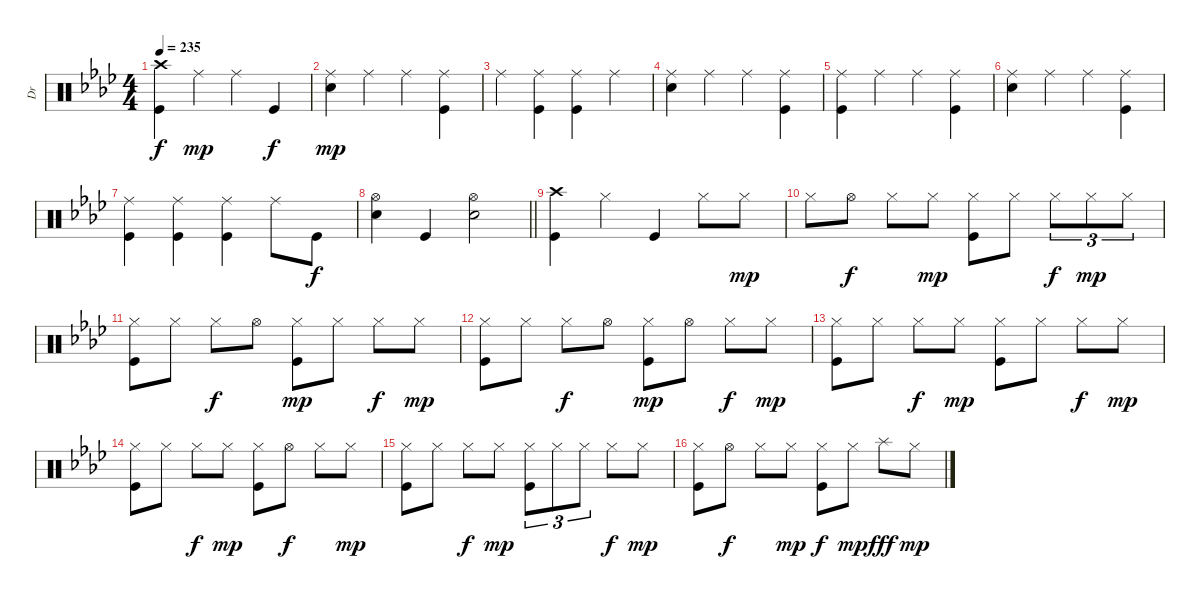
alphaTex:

\track ("Dr" "Dr") {instrument percussion}
\staff {score}
\articulation defaults
\ts (4 4)
\tempo 235
\clef neutral
\ks ab
("Crash high (hit)" "Kick (hit)").4{dy f} "Ride (middle)".4{dy mp} "Ride (middle)".4 "Kick (hit)".4{dy f} |
("Ride (middle)" "Electric Snare (hit)").4{dy mp} "Ride (middle)".4 "Ride (middle)".4 ("Ride (middle)" "Kick (hit)").4 |
"Ride (middle)".4 ("Ride (middle)" "Kick (hit)").4 ("Ride (middle)" "Kick (hit)").4 "Ride (middle)".4 |
("Ride (middle)" "Electric Snare (hit)").4 "Ride (middle)".4 "Ride (middle)".4 ("Ride (middle)" "Kick (hit)").4 |
("Ride (middle)" "Kick (hit)").4 "Ride (middle)".4 "Ride (middle)".4 ("Ride (middle)" "Kick (hit)").4 |
("Ride (middle)" "Electric Snare (hit)").4 "Ride (middle)".4 "Ride (middle)".4 ("Ride (middle)" "Kick (hit)").4 |
("Ride (middle)" "Kick (hit)").4 ("Ride (middle)" "Kick (hit)").4 ("Ride (middle)" "Kick (hit)").4 "Ride (middle)".8 "Kick (hit)".8{dy f} |
\barLineRight lightlight
("Hi-Hat (open)" "Electric Snare (hit)").4 "Kick (hit)".4 ("Hi-Hat (open)" "Electric Snare (hit)").2 |
\section ("" "")
("Crash high (hit)" "Kick (hit)").4 "Hi-Hat (closed)".4 "Kick (hit)".4 "Hi-Hat (closed)".8 "Hi-Hat (closed)".8{dy mp} |
"Hi-Hat (closed)".8 "Hi-Hat (open)".8{dy f} "Hi-Hat (closed)".8 "Hi-Hat (closed)".8{dy mp} ("Hi-Hat (closed)" "Kick (hit)").8 "Hi-Hat (closed)".8 "Hi-Hat (closed)".8{tu (3 2) dy f} "Hi-Hat (closed)".8{tu (3 2) dy mp} "Hi-Hat (closed)".8{tu (3 2)} |
("Hi-Hat (closed)" "Kick (hit)").8 "Hi-Hat (closed)".8 "Hi-Hat (closed)".8{dy f} "Hi-Hat (open)".8 ("Hi-Hat (closed)" "Kick (hit)").8{dy mp} "Hi-Hat (closed)".8 "Hi-Hat (closed)".8{dy f} "Hi-Hat (closed)".8{dy mp} |
("Hi-Hat (closed)" "Kick (hit)").8 "Hi-Hat (closed)".8 "Hi-Hat (closed)".8{dy f} "Hi-Hat (open)".8 ("Hi-Hat (closed)" "Kick (hit)").8{dy mp} "Hi-Hat (open)".8 "Hi-Hat (closed)".8{dy f} "Hi-Hat (closed)".8{dy mp} |
("Hi-Hat (closed)" "Kick (hit)").8 "Hi-Hat (closed)".8 "Hi-Hat (closed)".8{dy f} "Hi-Hat (closed)".8{dy mp} ("Hi-Hat (closed)" "Kick (hit)").8 "Hi-Hat (closed)".8 "Hi-Hat (closed)".8{dy f} "Hi-Hat (closed)".8{dy mp} |
("Hi-Hat (closed)" "Kick (hit)").8 "Hi-Hat (closed)".8 "Hi-Hat (closed)".8{dy f} "Hi-Hat (closed)".8{dy mp} ("Hi-Hat (closed)" "Kick (hit)").8 "Hi-Hat (open)".8{dy f} "Hi-Hat (closed)".8 "Hi-Hat (closed)".8{dy mp} |
("Hi-Hat (closed)" "Kick (hit)").8 "Hi-Hat (closed)".8 "Hi-Hat (closed)".8{dy f} "Hi-Hat (closed)".8{dy mp} ("Hi-Hat (closed)" "Kick (hit)").8{tu (3 2)} "Hi-Hat (closed)".8{tu (3 2)} "Hi-Hat (closed)".8{tu (3 2)} "Hi-Hat (closed)".8{dy f} "Hi-Hat (closed)".8{dy mp} |
("Hi-Hat (closed)" "Kick (hit)").8 "Hi-Hat (open)".8{dy f} "Hi-Hat (closed)".8 "Hi-Hat (closed)".8{dy mp} ("Hi-Hat (closed)" "Kick (hit)").8{dy f} "Hi-Hat (closed)".8{dy mp} "Splash (hit)".8{dy fff} "Hi-Hat (closed)".8{dy mp}
